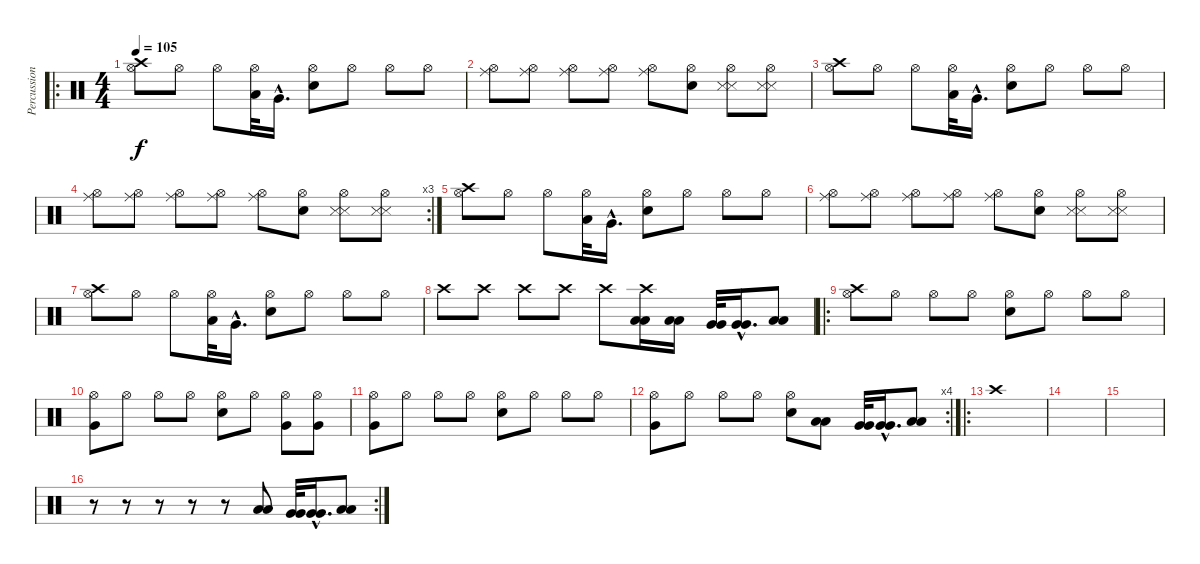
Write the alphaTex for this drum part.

\track ("Percussions" "Percussion") {instrument percussion}
\staff {score}
\articulation defaults
\ro
\ts (4 4)
\tempo 105
\clef neutral
\ks c
("Hi-Hat (open)" "Crash high (hit)").8{dy f} "Hi-Hat (open)".8 "Hi-Hat (open)".8 ("Hi-Hat (open)" "Low Tom (hit)").32 "Very Low Tom (hit)"{hac}.16{d} ("Hi-Hat (open)" "Electric Snare (hit)").8 "Hi-Hat (open)".8 "Hi-Hat (open)".8 "Hi-Hat (open)".8 |
("Hi-Hat (open)" "Ride (middle)").8 ("Hi-Hat (open)" "Ride (middle)").8 ("Hi-Hat (open)" "Ride (middle)").8 ("Hi-Hat (open)" "Ride (middle)").8 ("Hi-Hat (open)" "Ride (middle)").8 ("Hi-Hat (open)" "Snare (hit) 2").8 ("Hi-Hat (open)" "Snare (side stick) 3" "Snare (side stick) 3").8 ("Hi-Hat (open)" "Snare (side stick) 3" "Snare (side stick) 3").8 |
("Hi-Hat (open)" "Crash high (hit)").8 "Hi-Hat (open)".8 "Hi-Hat (open)".8 ("Hi-Hat (open)" "Low Tom (hit)").32 "Very Low Tom (hit)"{hac}.16{d} ("Hi-Hat (open)" "Electric Snare (hit)").8 "Hi-Hat (open)".8 "Hi-Hat (open)".8 "Hi-Hat (open)".8 |
\rc 3
("Hi-Hat (open)" "Ride (middle)").8 ("Hi-Hat (open)" "Ride (middle)").8 ("Hi-Hat (open)" "Ride (middle)").8 ("Hi-Hat (open)" "Ride (middle)").8 ("Hi-Hat (open)" "Ride (middle)").8 ("Hi-Hat (open)" "Snare (hit) 2").8 ("Hi-Hat (open)" "Snare (side stick) 3" "Snare (side stick) 3").8 ("Hi-Hat (open)" "Snare (side stick) 3" "Snare (side stick) 3").8 |
("Hi-Hat (open)" "Crash high (hit)").8 "Hi-Hat (open)".8 "Hi-Hat (open)".8 ("Hi-Hat (open)" "Low Tom (hit)").32 "Very Low Tom (hit)"{hac}.16{d} ("Hi-Hat (open)" "Electric Snare (hit)").8 "Hi-Hat (open)".8 "Hi-Hat (open)".8 "Hi-Hat (open)".8 |
("Hi-Hat (open)" "Ride (middle)").8 ("Hi-Hat (open)" "Ride (middle)").8 ("Hi-Hat (open)" "Ride (middle)").8 ("Hi-Hat (open)" "Ride (middle)").8 ("Hi-Hat (open)" "Ride (middle)").8 ("Hi-Hat (open)" "Snare (hit) 2").8 ("Hi-Hat (open)" "Snare (side stick) 3" "Snare (side stick) 3").8 ("Hi-Hat (open)" "Snare (side stick) 3" "Snare (side stick) 3").8 |
("Hi-Hat (open)" "Crash high (hit)").8 "Hi-Hat (open)".8 "Hi-Hat (open)".8 ("Hi-Hat (open)" "Low Tom (hit)").32 "Very Low Tom (hit)"{hac}.16{d} ("Hi-Hat (open)" "Electric Snare (hit)").8 "Hi-Hat (open)".8 "Hi-Hat (open)".8 "Hi-Hat (open)".8 |
"Crash high (hit)".8 "Crash high (hit)".8 "Crash high (hit)".8 "Crash high (hit)".8 "Crash high (hit)".8 ("Crash high (hit)" "Low Tom (hit)" "Low Tom (hit)").16 ("Low Tom (hit)" "Low Tom (hit)").16 ("Very Low Tom (hit)" "Very Low Tom (hit)").32 ("Very Low Tom (hit)"{hac} "Very Low Tom (hit)"{hac}).16{d} ("Low Floor Tom (hit)" "Low Floor Tom (hit)").8 |
\ro
("Hi-Hat (open)" "Crash high (hit)").8 "Hi-Hat (open)".8 "Hi-Hat (open)".8 "Hi-Hat (open)".8 ("Hi-Hat (open)" "Electric Snare (hit)").8 "Hi-Hat (open)".8 "Hi-Hat (open)".8 "Hi-Hat (open)".8 |
("Hi-Hat (open)" "Very Low Tom (hit)").8 "Hi-Hat (open)".8 "Hi-Hat (open)".8 "Hi-Hat (open)".8 ("Hi-Hat (open)" "Electric Snare (hit)").8 "Hi-Hat (open)".8 ("Hi-Hat (open)" "Very Low Tom (hit)").8 ("Hi-Hat (open)" "Very Low Tom (hit)").8 |
("Hi-Hat (open)" "Very Low Tom (hit)").8 "Hi-Hat (open)".8 "Hi-Hat (open)".8 "Hi-Hat (open)".8 ("Hi-Hat (open)" "Electric Snare (hit)").8 "Hi-Hat (open)".8 "Hi-Hat (open)".8 "Hi-Hat (open)".8 |
\rc 4
("Hi-Hat (open)" "Very Low Tom (hit)").8 "Hi-Hat (open)".8 "Hi-Hat (open)".8 "Hi-Hat (open)".8 ("Hi-Hat (open)" "Electric Snare (hit)").8 ("Low Tom (hit)" "Low Tom (hit)").8 ("Very Low Tom (hit)" "Very Low Tom (hit)").32 ("Very Low Tom (hit)"{hac} "Very Low Tom (hit)"{hac}).16{d} ("Low Floor Tom (hit)" "Low Floor Tom (hit)").8 |
\ro "Crash high (hit)".1
|
|
|
\rc 2
r.8 r.8 r.8 r.8 r.8 ("Low Tom (hit)" "Low Tom (hit)").8 ("Very Low Tom (hit)" "Very Low Tom (hit)").32 ("Very Low Tom (hit)"{hac} "Very Low Tom (hit)"{hac}).16{d} ("Low Floor Tom (hit)" "Low Floor Tom (hit)").8
